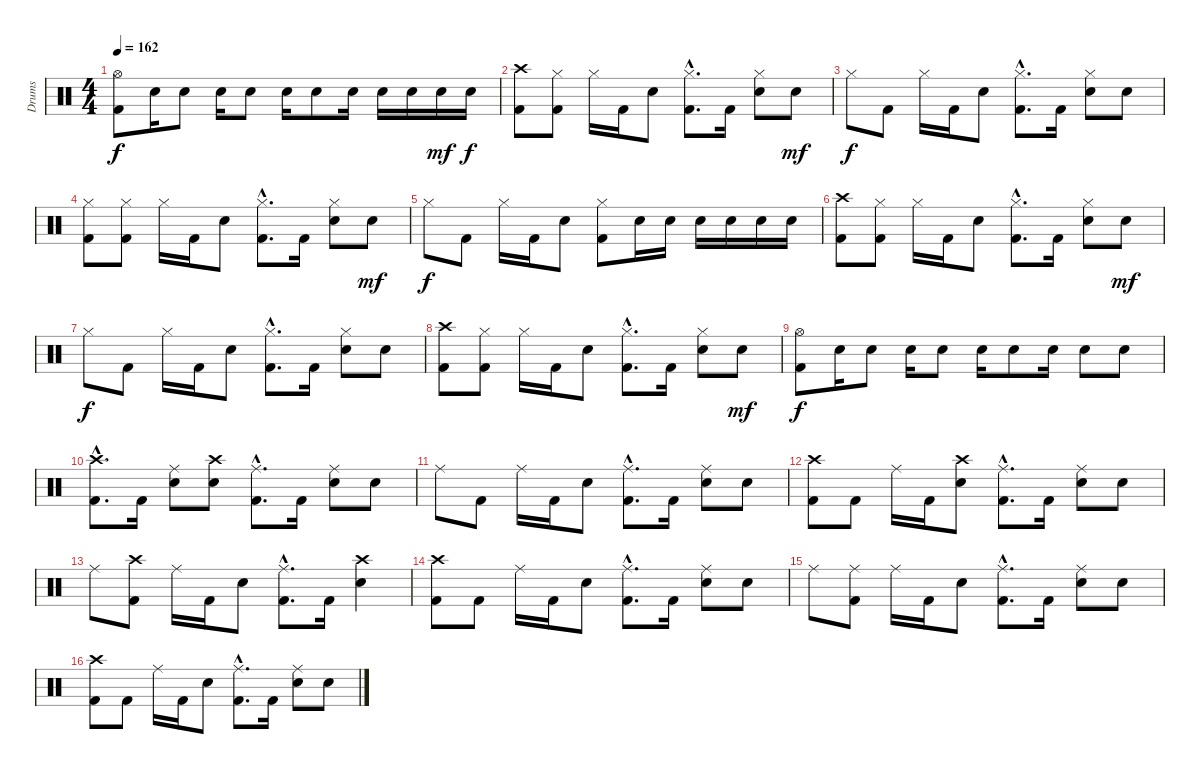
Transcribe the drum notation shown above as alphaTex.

\track ("Drums" "Drums") {instrument percussion}
\staff {score}
\articulation defaults
\ts (4 4)
\tempo 162
\clef neutral
\ks c
("Hi-Hat (open)" "Kick (hit) 2").8{dy f} "Electric Snare (hit)".16 "Electric Snare (hit)".8 "Electric Snare (hit)".16 "Electric Snare (hit)".8 "Electric Snare (hit)".16 "Electric Snare (hit)".8 "Electric Snare (hit)".16 "Electric Snare (hit)".16 "Electric Snare (hit)".16 "Electric Snare (hit)".16{dy mf} "Electric Snare (hit)".16{dy f} |
("Crash high (hit)" "Kick (hit) 2").8 ("Hi-Hat (closed)" "Kick (hit) 2").8 "Hi-Hat (closed)".16 "Kick (hit) 2".16 "Electric Snare (hit)".8 ("Hi-Hat (closed)"{hac} "Kick (hit) 2"{hac}).8{d} "Kick (hit) 2".16 ("Hi-Hat (closed)" "Electric Snare (hit)").8 "Electric Snare (hit)".8{dy mf} |
"Hi-Hat (closed)".8{dy f} "Kick (hit) 2".8 "Hi-Hat (closed)".16 "Kick (hit) 2".16 "Electric Snare (hit)".8 ("Hi-Hat (closed)"{hac} "Kick (hit) 2"{hac}).8{d} "Kick (hit) 2".16 ("Hi-Hat (closed)" "Electric Snare (hit)").8 "Electric Snare (hit)".8 |
("Hi-Hat (closed)" "Kick (hit) 2").8 ("Hi-Hat (closed)" "Kick (hit) 2").8 "Hi-Hat (closed)".16 "Kick (hit) 2".16 "Electric Snare (hit)".8 ("Hi-Hat (closed)"{hac} "Kick (hit) 2"{hac}).8{d} "Kick (hit) 2".16 ("Hi-Hat (closed)" "Electric Snare (hit)").8 "Electric Snare (hit)".8{dy mf} |
"Hi-Hat (closed)".8{dy f} "Kick (hit) 2".8 "Hi-Hat (closed)".16 "Kick (hit) 2".16 "Electric Snare (hit)".8 ("Hi-Hat (closed)" "Kick (hit) 2").8 "Electric Snare (hit)".16 "Electric Snare (hit)".16 "Electric Snare (hit)".16 "Electric Snare (hit)".16 "Electric Snare (hit)".16 "Electric Snare (hit)".16 |
("Crash high (hit)" "Kick (hit) 2").8 ("Hi-Hat (closed)" "Kick (hit) 2").8 "Hi-Hat (closed)".16 "Kick (hit) 2".16 "Electric Snare (hit)".8 ("Hi-Hat (closed)"{hac} "Kick (hit) 2"{hac}).8{d} "Kick (hit) 2".16 ("Hi-Hat (closed)" "Electric Snare (hit)").8 "Electric Snare (hit)".8{dy mf} |
"Hi-Hat (closed)".8{dy f} "Kick (hit) 2".8 "Hi-Hat (closed)".16 "Kick (hit) 2".16 "Electric Snare (hit)".8 ("Hi-Hat (closed)"{hac} "Kick (hit) 2"{hac}).8{d} "Kick (hit) 2".16 ("Hi-Hat (closed)" "Electric Snare (hit)").8 "Electric Snare (hit)".8 |
("Crash high (hit)" "Kick (hit) 2").8 ("Hi-Hat (closed)" "Kick (hit) 2").8 "Hi-Hat (closed)".16 "Kick (hit) 2".16 "Electric Snare (hit)".8 ("Hi-Hat (closed)"{hac} "Kick (hit) 2"{hac}).8{d} "Kick (hit) 2".16 ("Hi-Hat (closed)" "Electric Snare (hit)").8 "Electric Snare (hit)".8{dy mf} |
("Hi-Hat (open)" "Kick (hit) 2").8{dy f} "Electric Snare (hit)".16 "Electric Snare (hit)".8 "Electric Snare (hit)".16 "Electric Snare (hit)".8 "Electric Snare (hit)".16 "Electric Snare (hit)".8 "Electric Snare (hit)".16 "Electric Snare (hit)".8 "Electric Snare (hit)".8 |
("Crash high (hit)"{hac} "Kick (hit) 2"{hac}).8{d} "Kick (hit) 2".16 ("Ride (middle)" "Electric Snare (hit)").8 ("Crash high (hit)" "Electric Snare (hit)").8 ("Ride (middle)"{hac} "Kick (hit) 2"{hac}).8{d} "Kick (hit) 2".16 ("Ride (middle)" "Electric Snare (hit)").8 "Electric Snare (hit)".8 |
"Ride (middle)".8 "Kick (hit) 2".8 "Ride (middle)".16 "Kick (hit) 2".16 "Electric Snare (hit)".8 ("Ride (middle)"{hac} "Kick (hit) 2"{hac}).8{d} "Kick (hit) 2".16 ("Ride (middle)" "Electric Snare (hit)").8 "Electric Snare (hit)".8 |
("Crash high (hit)" "Kick (hit) 2").8 "Kick (hit) 2".8 "Ride (middle)".16 "Kick (hit) 2".16 ("Crash high (hit)" "Electric Snare (hit)").8 ("Ride (middle)"{hac} "Kick (hit) 2"{hac}).8{d} "Kick (hit) 2".16 ("Ride (middle)" "Electric Snare (hit)").8 "Electric Snare (hit)".8 |
"Ride (middle)".8 ("Crash high (hit)" "Kick (hit) 2").8 "Ride (middle)".16 "Kick (hit) 2".16 "Electric Snare (hit)".8 ("Ride (middle)"{hac} "Kick (hit) 2"{hac}).8{d} "Kick (hit) 2".16 ("Crash high (hit)" "Electric Snare (hit)").4 |
("Crash high (hit)" "Kick (hit) 2").8 "Kick (hit) 2".8 "Ride (middle)".16 "Kick (hit) 2".16 "Electric Snare (hit)".8 ("Ride (middle)"{hac} "Kick (hit) 2"{hac}).8{d} "Kick (hit) 2".16 ("Ride (middle)" "Electric Snare (hit)").8 "Electric Snare (hit)".8 |
"Ride (middle)".8 ("Ride (middle)" "Kick (hit) 2").8 "Ride (middle)".16 "Kick (hit) 2".16 "Electric Snare (hit)".8 ("Ride (middle)"{hac} "Kick (hit) 2"{hac}).8{d} "Kick (hit) 2".16 ("Ride (middle)" "Electric Snare (hit)").8 "Electric Snare (hit)".8 |
("Crash high (hit)" "Kick (hit) 2").8 "Kick (hit) 2".8 "Ride (middle)".16 "Kick (hit) 2".16 "Electric Snare (hit)".8 ("Ride (middle)"{hac} "Kick (hit) 2"{hac}).8{d} "Kick (hit) 2".16 ("Ride (middle)" "Electric Snare (hit)").8 "Electric Snare (hit)".8
